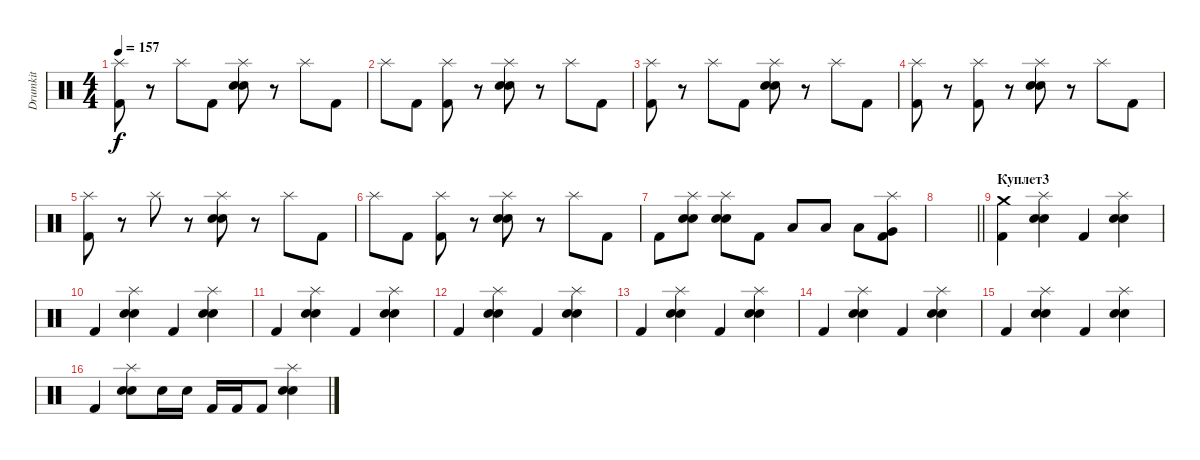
\track ("Drumkit" "Drumkit") {instrument percussion}
\staff {score}
\articulation defaults
\ts (4 4)
\tempo 157
\clef neutral
\ks c
("Splash (hit)" "Kick (hit) 2").8{dy f} r.8 "Splash (hit)".8 "Kick (hit) 2".8 ("Splash (hit)" "Electric Snare (hit)" "Snare (hit) 2").8 r.8 "Splash (hit)".8 "Kick (hit) 2".8 |
"Splash (hit)".8 "Kick (hit) 2".8 ("Splash (hit)" "Kick (hit) 2").8 r.8 ("Splash (hit)" "Electric Snare (hit)" "Snare (hit) 2").8 r.8 "Splash (hit)".8 "Kick (hit) 2".8 |
("Splash (hit)" "Kick (hit) 2").8 r.8 "Splash (hit)".8 "Kick (hit) 2".8 ("Splash (hit)" "Electric Snare (hit)" "Snare (hit) 2").8 r.8 "Splash (hit)".8 "Kick (hit) 2".8 |
("Splash (hit)" "Kick (hit) 2").8 r.8 ("Splash (hit)" "Kick (hit) 2").8 r.8 ("Splash (hit)" "Electric Snare (hit)" "Snare (hit) 2").8 r.8 "Splash (hit)".8 "Kick (hit) 2".8 |
("Splash (hit)" "Kick (hit) 2").8 r.8 "Splash (hit)".8 r.8 ("Splash (hit)" "Electric Snare (hit)" "Snare (hit) 2").8 r.8 "Splash (hit)".8 "Kick (hit) 2".8 |
"Splash (hit)".8 "Kick (hit) 2".8 ("Splash (hit)" "Kick (hit) 2").8 r.8 ("Splash (hit)" "Electric Snare (hit)" "Snare (hit) 2").8 r.8 "Splash (hit)".8 "Kick (hit) 2".8 |
"Kick (hit) 2".8 ("Splash (hit)" "Electric Snare (hit)" "Snare (hit) 2").8 ("Splash (hit)" "Electric Snare (hit)" "Snare (hit) 2").8 "Kick (hit) 2".8 "Low Tom (hit)".8 "Low Tom (hit)".8 "Low Floor Tom (hit)".8 ("Splash (hit)" "Very Low Tom (hit)" "Kick (hit) 2").8 |
\barLineRight lightlight
|
\section ("" "Куплет3")
("Crash medium (hit)" "Kick (hit) 2").4 ("Splash (hit)" "Electric Snare (hit)" "Snare (hit) 2").4 "Kick (hit) 2".4 ("Splash (hit)" "Electric Snare (hit)" "Snare (hit) 2").4 |
"Kick (hit) 2".4 ("Splash (hit)" "Electric Snare (hit)" "Snare (hit) 2").4 "Kick (hit) 2".4 ("Splash (hit)" "Electric Snare (hit)" "Snare (hit) 2").4 |
"Kick (hit) 2".4 ("Splash (hit)" "Electric Snare (hit)" "Snare (hit) 2").4 "Kick (hit) 2".4 ("Splash (hit)" "Electric Snare (hit)" "Snare (hit) 2").4 |
"Kick (hit) 2".4 ("Splash (hit)" "Electric Snare (hit)" "Snare (hit) 2").4 "Kick (hit) 2".4 ("Splash (hit)" "Electric Snare (hit)" "Snare (hit) 2").4 |
"Kick (hit) 2".4 ("Splash (hit)" "Electric Snare (hit)" "Snare (hit) 2").4 "Kick (hit) 2".4 ("Splash (hit)" "Electric Snare (hit)" "Snare (hit) 2").4 |
"Kick (hit) 2".4 ("Splash (hit)" "Electric Snare (hit)" "Snare (hit) 2").4 "Kick (hit) 2".4 ("Splash (hit)" "Electric Snare (hit)" "Snare (hit) 2").4 |
"Kick (hit) 2".4 ("Splash (hit)" "Electric Snare (hit)" "Snare (hit) 2").4 "Kick (hit) 2".4 ("Splash (hit)" "Electric Snare (hit)" "Snare (hit) 2").4 |
"Kick (hit) 2".4 ("Splash (hit)" "Electric Snare (hit)" "Snare (hit) 2").8 "Electric Snare (hit)".16 "Electric Snare (hit)".16 "Kick (hit) 2".16 "Kick (hit) 2".16 "Kick (hit) 2".8 ("Splash (hit)" "Electric Snare (hit)" "Snare (hit) 2").4
